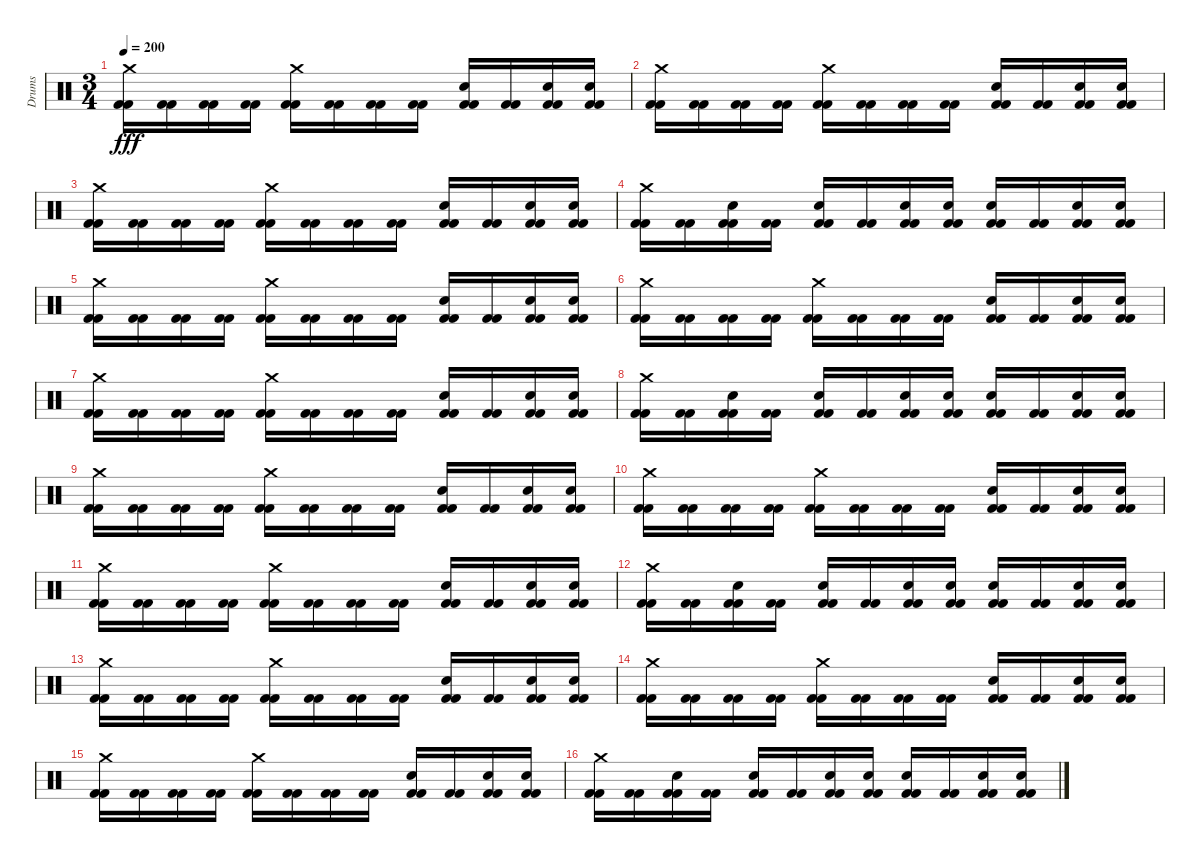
\track ("Drums" "Drums") {instrument percussion}
\staff {score}
\articulation defaults
\ts (3 4)
\tempo 200
\clef neutral
\ks c
("Crash medium (hit)" "Kick (hit) 2" "Kick (hit) 2").16{dy fff} ("Kick (hit) 2" "Kick (hit) 2").16 ("Kick (hit) 2" "Kick (hit) 2").16 ("Kick (hit) 2" "Kick (hit) 2").16 ("Crash medium (hit)" "Kick (hit) 2" "Kick (hit) 2").16 ("Kick (hit) 2" "Kick (hit) 2").16 ("Kick (hit) 2" "Kick (hit) 2").16 ("Kick (hit) 2" "Kick (hit) 2").16 ("Electric Snare (hit)" "Kick (hit) 2" "Kick (hit) 2").16 ("Kick (hit) 2" "Kick (hit) 2").16 ("Electric Snare (hit)" "Kick (hit) 2" "Kick (hit) 2").16 ("Electric Snare (hit)" "Kick (hit) 2" "Kick (hit) 2").16 |
("Crash medium (hit)" "Kick (hit) 2" "Kick (hit) 2").16 ("Kick (hit) 2" "Kick (hit) 2").16 ("Kick (hit) 2" "Kick (hit) 2").16 ("Kick (hit) 2" "Kick (hit) 2").16 ("Crash medium (hit)" "Kick (hit) 2" "Kick (hit) 2").16 ("Kick (hit) 2" "Kick (hit) 2").16 ("Kick (hit) 2" "Kick (hit) 2").16 ("Kick (hit) 2" "Kick (hit) 2").16 ("Electric Snare (hit)" "Kick (hit) 2" "Kick (hit) 2").16 ("Kick (hit) 2" "Kick (hit) 2").16 ("Electric Snare (hit)" "Kick (hit) 2" "Kick (hit) 2").16 ("Electric Snare (hit)" "Kick (hit) 2" "Kick (hit) 2").16 |
("Crash medium (hit)" "Kick (hit) 2" "Kick (hit) 2").16 ("Kick (hit) 2" "Kick (hit) 2").16 ("Kick (hit) 2" "Kick (hit) 2").16 ("Kick (hit) 2" "Kick (hit) 2").16 ("Crash medium (hit)" "Kick (hit) 2" "Kick (hit) 2").16 ("Kick (hit) 2" "Kick (hit) 2").16 ("Kick (hit) 2" "Kick (hit) 2").16 ("Kick (hit) 2" "Kick (hit) 2").16 ("Electric Snare (hit)" "Kick (hit) 2" "Kick (hit) 2").16 ("Kick (hit) 2" "Kick (hit) 2").16 ("Electric Snare (hit)" "Kick (hit) 2" "Kick (hit) 2").16 ("Electric Snare (hit)" "Kick (hit) 2" "Kick (hit) 2").16 |
("Crash medium (hit)" "Kick (hit) 2" "Kick (hit) 2").16 ("Kick (hit) 2" "Kick (hit) 2").16 ("Electric Snare (hit)" "Kick (hit) 2" "Kick (hit) 2").16 ("Kick (hit) 2" "Kick (hit) 2").16 ("Electric Snare (hit)" "Kick (hit) 2" "Kick (hit) 2").16 ("Kick (hit) 2" "Kick (hit) 2").16 ("Electric Snare (hit)" "Kick (hit) 2" "Kick (hit) 2").16 ("Electric Snare (hit)" "Kick (hit) 2" "Kick (hit) 2").16 ("Electric Snare (hit)" "Kick (hit) 2" "Kick (hit) 2").16 ("Kick (hit) 2" "Kick (hit) 2").16 ("Electric Snare (hit)" "Kick (hit) 2" "Kick (hit) 2").16 ("Electric Snare (hit)" "Kick (hit) 2" "Kick (hit) 2").16 |
("Crash medium (hit)" "Kick (hit) 2" "Kick (hit) 2").16 ("Kick (hit) 2" "Kick (hit) 2").16 ("Kick (hit) 2" "Kick (hit) 2").16 ("Kick (hit) 2" "Kick (hit) 2").16 ("Crash medium (hit)" "Kick (hit) 2" "Kick (hit) 2").16 ("Kick (hit) 2" "Kick (hit) 2").16 ("Kick (hit) 2" "Kick (hit) 2").16 ("Kick (hit) 2" "Kick (hit) 2").16 ("Electric Snare (hit)" "Kick (hit) 2" "Kick (hit) 2").16 ("Kick (hit) 2" "Kick (hit) 2").16 ("Electric Snare (hit)" "Kick (hit) 2" "Kick (hit) 2").16 ("Electric Snare (hit)" "Kick (hit) 2" "Kick (hit) 2").16 |
("Crash medium (hit)" "Kick (hit) 2" "Kick (hit) 2").16 ("Kick (hit) 2" "Kick (hit) 2").16 ("Kick (hit) 2" "Kick (hit) 2").16 ("Kick (hit) 2" "Kick (hit) 2").16 ("Crash medium (hit)" "Kick (hit) 2" "Kick (hit) 2").16 ("Kick (hit) 2" "Kick (hit) 2").16 ("Kick (hit) 2" "Kick (hit) 2").16 ("Kick (hit) 2" "Kick (hit) 2").16 ("Electric Snare (hit)" "Kick (hit) 2" "Kick (hit) 2").16 ("Kick (hit) 2" "Kick (hit) 2").16 ("Electric Snare (hit)" "Kick (hit) 2" "Kick (hit) 2").16 ("Electric Snare (hit)" "Kick (hit) 2" "Kick (hit) 2").16 |
("Crash medium (hit)" "Kick (hit) 2" "Kick (hit) 2").16 ("Kick (hit) 2" "Kick (hit) 2").16 ("Kick (hit) 2" "Kick (hit) 2").16 ("Kick (hit) 2" "Kick (hit) 2").16 ("Crash medium (hit)" "Kick (hit) 2" "Kick (hit) 2").16 ("Kick (hit) 2" "Kick (hit) 2").16 ("Kick (hit) 2" "Kick (hit) 2").16 ("Kick (hit) 2" "Kick (hit) 2").16 ("Electric Snare (hit)" "Kick (hit) 2" "Kick (hit) 2").16 ("Kick (hit) 2" "Kick (hit) 2").16 ("Electric Snare (hit)" "Kick (hit) 2" "Kick (hit) 2").16 ("Electric Snare (hit)" "Kick (hit) 2" "Kick (hit) 2").16 |
("Crash medium (hit)" "Kick (hit) 2" "Kick (hit) 2").16 ("Kick (hit) 2" "Kick (hit) 2").16 ("Electric Snare (hit)" "Kick (hit) 2" "Kick (hit) 2").16 ("Kick (hit) 2" "Kick (hit) 2").16 ("Electric Snare (hit)" "Kick (hit) 2" "Kick (hit) 2").16 ("Kick (hit) 2" "Kick (hit) 2").16 ("Electric Snare (hit)" "Kick (hit) 2" "Kick (hit) 2").16 ("Electric Snare (hit)" "Kick (hit) 2" "Kick (hit) 2").16 ("Electric Snare (hit)" "Kick (hit) 2" "Kick (hit) 2").16 ("Kick (hit) 2" "Kick (hit) 2").16 ("Electric Snare (hit)" "Kick (hit) 2" "Kick (hit) 2").16 ("Electric Snare (hit)" "Kick (hit) 2" "Kick (hit) 2").16 |
("Crash medium (hit)" "Kick (hit) 2" "Kick (hit) 2").16 ("Kick (hit) 2" "Kick (hit) 2").16 ("Kick (hit) 2" "Kick (hit) 2").16 ("Kick (hit) 2" "Kick (hit) 2").16 ("Crash medium (hit)" "Kick (hit) 2" "Kick (hit) 2").16 ("Kick (hit) 2" "Kick (hit) 2").16 ("Kick (hit) 2" "Kick (hit) 2").16 ("Kick (hit) 2" "Kick (hit) 2").16 ("Electric Snare (hit)" "Kick (hit) 2" "Kick (hit) 2").16 ("Kick (hit) 2" "Kick (hit) 2").16 ("Electric Snare (hit)" "Kick (hit) 2" "Kick (hit) 2").16 ("Electric Snare (hit)" "Kick (hit) 2" "Kick (hit) 2").16 |
("Crash medium (hit)" "Kick (hit) 2" "Kick (hit) 2").16 ("Kick (hit) 2" "Kick (hit) 2").16 ("Kick (hit) 2" "Kick (hit) 2").16 ("Kick (hit) 2" "Kick (hit) 2").16 ("Crash medium (hit)" "Kick (hit) 2" "Kick (hit) 2").16 ("Kick (hit) 2" "Kick (hit) 2").16 ("Kick (hit) 2" "Kick (hit) 2").16 ("Kick (hit) 2" "Kick (hit) 2").16 ("Electric Snare (hit)" "Kick (hit) 2" "Kick (hit) 2").16 ("Kick (hit) 2" "Kick (hit) 2").16 ("Electric Snare (hit)" "Kick (hit) 2" "Kick (hit) 2").16 ("Electric Snare (hit)" "Kick (hit) 2" "Kick (hit) 2").16 |
("Crash medium (hit)" "Kick (hit) 2" "Kick (hit) 2").16 ("Kick (hit) 2" "Kick (hit) 2").16 ("Kick (hit) 2" "Kick (hit) 2").16 ("Kick (hit) 2" "Kick (hit) 2").16 ("Crash medium (hit)" "Kick (hit) 2" "Kick (hit) 2").16 ("Kick (hit) 2" "Kick (hit) 2").16 ("Kick (hit) 2" "Kick (hit) 2").16 ("Kick (hit) 2" "Kick (hit) 2").16 ("Electric Snare (hit)" "Kick (hit) 2" "Kick (hit) 2").16 ("Kick (hit) 2" "Kick (hit) 2").16 ("Electric Snare (hit)" "Kick (hit) 2" "Kick (hit) 2").16 ("Electric Snare (hit)" "Kick (hit) 2" "Kick (hit) 2").16 |
("Crash medium (hit)" "Kick (hit) 2" "Kick (hit) 2").16 ("Kick (hit) 2" "Kick (hit) 2").16 ("Electric Snare (hit)" "Kick (hit) 2" "Kick (hit) 2").16 ("Kick (hit) 2" "Kick (hit) 2").16 ("Electric Snare (hit)" "Kick (hit) 2" "Kick (hit) 2").16 ("Kick (hit) 2" "Kick (hit) 2").16 ("Electric Snare (hit)" "Kick (hit) 2" "Kick (hit) 2").16 ("Electric Snare (hit)" "Kick (hit) 2" "Kick (hit) 2").16 ("Electric Snare (hit)" "Kick (hit) 2" "Kick (hit) 2").16 ("Kick (hit) 2" "Kick (hit) 2").16 ("Electric Snare (hit)" "Kick (hit) 2" "Kick (hit) 2").16 ("Electric Snare (hit)" "Kick (hit) 2" "Kick (hit) 2").16 |
("Crash medium (hit)" "Kick (hit) 2" "Kick (hit) 2").16 ("Kick (hit) 2" "Kick (hit) 2").16 ("Kick (hit) 2" "Kick (hit) 2").16 ("Kick (hit) 2" "Kick (hit) 2").16 ("Crash medium (hit)" "Kick (hit) 2" "Kick (hit) 2").16 ("Kick (hit) 2" "Kick (hit) 2").16 ("Kick (hit) 2" "Kick (hit) 2").16 ("Kick (hit) 2" "Kick (hit) 2").16 ("Electric Snare (hit)" "Kick (hit) 2" "Kick (hit) 2").16 ("Kick (hit) 2" "Kick (hit) 2").16 ("Electric Snare (hit)" "Kick (hit) 2" "Kick (hit) 2").16 ("Electric Snare (hit)" "Kick (hit) 2" "Kick (hit) 2").16 |
("Crash medium (hit)" "Kick (hit) 2" "Kick (hit) 2").16 ("Kick (hit) 2" "Kick (hit) 2").16 ("Kick (hit) 2" "Kick (hit) 2").16 ("Kick (hit) 2" "Kick (hit) 2").16 ("Crash medium (hit)" "Kick (hit) 2" "Kick (hit) 2").16 ("Kick (hit) 2" "Kick (hit) 2").16 ("Kick (hit) 2" "Kick (hit) 2").16 ("Kick (hit) 2" "Kick (hit) 2").16 ("Electric Snare (hit)" "Kick (hit) 2" "Kick (hit) 2").16 ("Kick (hit) 2" "Kick (hit) 2").16 ("Electric Snare (hit)" "Kick (hit) 2" "Kick (hit) 2").16 ("Electric Snare (hit)" "Kick (hit) 2" "Kick (hit) 2").16 |
("Crash medium (hit)" "Kick (hit) 2" "Kick (hit) 2").16 ("Kick (hit) 2" "Kick (hit) 2").16 ("Kick (hit) 2" "Kick (hit) 2").16 ("Kick (hit) 2" "Kick (hit) 2").16 ("Crash medium (hit)" "Kick (hit) 2" "Kick (hit) 2").16 ("Kick (hit) 2" "Kick (hit) 2").16 ("Kick (hit) 2" "Kick (hit) 2").16 ("Kick (hit) 2" "Kick (hit) 2").16 ("Electric Snare (hit)" "Kick (hit) 2" "Kick (hit) 2").16 ("Kick (hit) 2" "Kick (hit) 2").16 ("Electric Snare (hit)" "Kick (hit) 2" "Kick (hit) 2").16 ("Electric Snare (hit)" "Kick (hit) 2" "Kick (hit) 2").16 |
("Crash medium (hit)" "Kick (hit) 2" "Kick (hit) 2").16 ("Kick (hit) 2" "Kick (hit) 2").16 ("Electric Snare (hit)" "Kick (hit) 2" "Kick (hit) 2").16 ("Kick (hit) 2" "Kick (hit) 2").16 ("Electric Snare (hit)" "Kick (hit) 2" "Kick (hit) 2").16 ("Kick (hit) 2" "Kick (hit) 2").16 ("Electric Snare (hit)" "Kick (hit) 2" "Kick (hit) 2").16 ("Electric Snare (hit)" "Kick (hit) 2" "Kick (hit) 2").16 ("Electric Snare (hit)" "Kick (hit) 2" "Kick (hit) 2").16 ("Kick (hit) 2" "Kick (hit) 2").16 ("Electric Snare (hit)" "Kick (hit) 2" "Kick (hit) 2").16 ("Electric Snare (hit)" "Kick (hit) 2" "Kick (hit) 2").16
